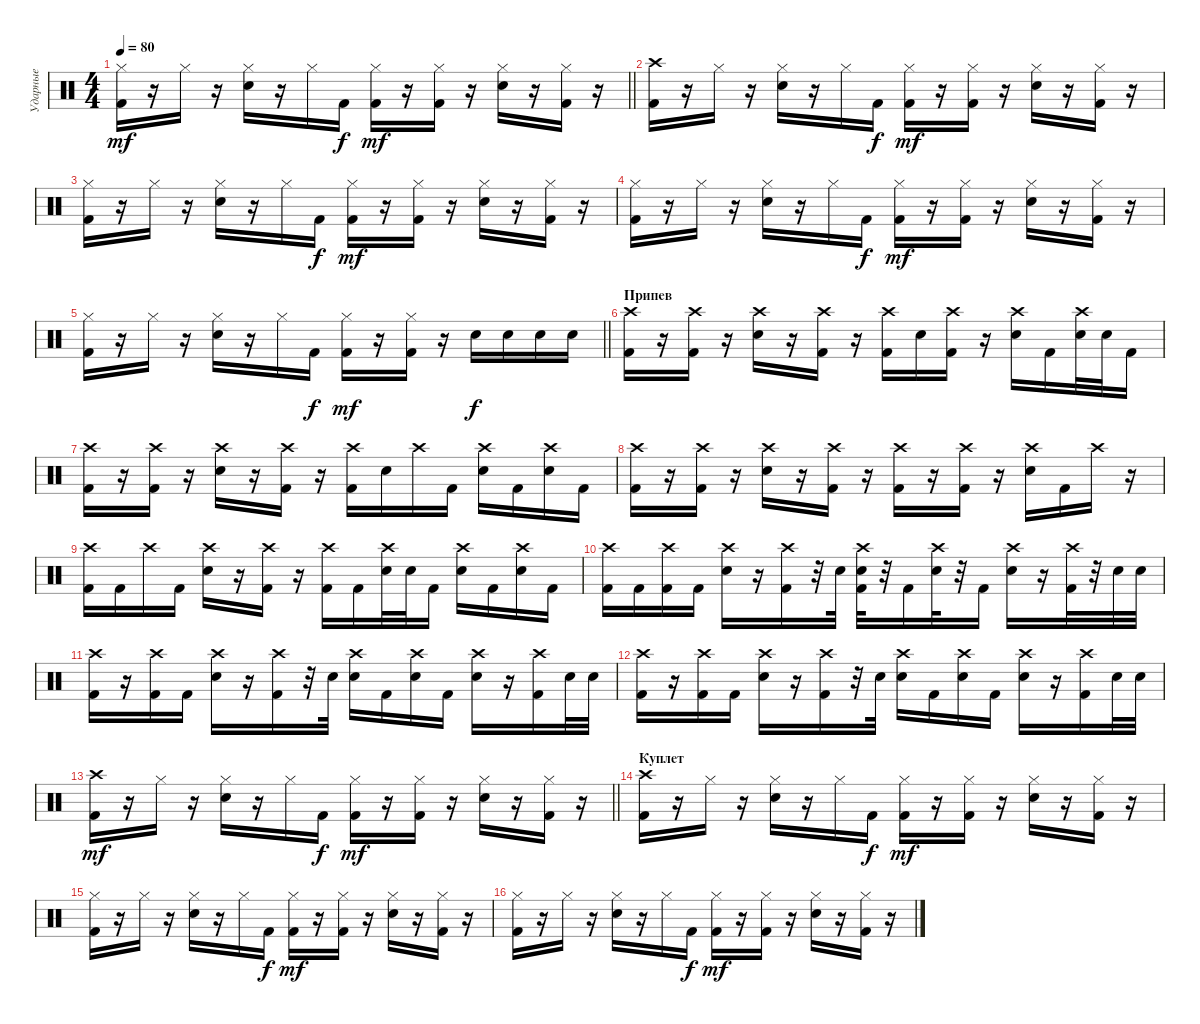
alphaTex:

\track ("Ударные" "Ударные") {instrument percussion}
\staff {score}
\articulation defaults
\ts (4 4)
\tempo 80
\clef neutral
\barLineRight lightlight
\ks c
("Hi-Hat (closed)" "Kick (hit) 2").16{dy mf} r.16 "Hi-Hat (closed)".16 r.16 ("Hi-Hat (closed)" "Electric Snare (hit)").16 r.16 "Hi-Hat (closed)".16 "Kick (hit) 2".16{dy f} ("Hi-Hat (closed)" "Kick (hit) 2").16{dy mf} r.16 ("Hi-Hat (closed)" "Kick (hit) 2").16 r.16 ("Hi-Hat (closed)" "Electric Snare (hit)").16 r.16 ("Hi-Hat (closed)" "Kick (hit) 2").16 r.16 |
("Crash high (hit)" "Kick (hit) 2").16 r.16 "Hi-Hat (closed)".16 r.16 ("Hi-Hat (closed)" "Electric Snare (hit)").16 r.16 "Hi-Hat (closed)".16 "Kick (hit) 2".16{dy f} ("Hi-Hat (closed)" "Kick (hit) 2").16{dy mf} r.16 ("Hi-Hat (closed)" "Kick (hit) 2").16 r.16 ("Hi-Hat (closed)" "Electric Snare (hit)").16 r.16 ("Hi-Hat (closed)" "Kick (hit) 2").16 r.16 |
("Hi-Hat (closed)" "Kick (hit) 2").16 r.16 "Hi-Hat (closed)".16 r.16 ("Hi-Hat (closed)" "Electric Snare (hit)").16 r.16 "Hi-Hat (closed)".16 "Kick (hit) 2".16{dy f} ("Hi-Hat (closed)" "Kick (hit) 2").16{dy mf} r.16 ("Hi-Hat (closed)" "Kick (hit) 2").16 r.16 ("Hi-Hat (closed)" "Electric Snare (hit)").16 r.16 ("Hi-Hat (closed)" "Kick (hit) 2").16 r.16 |
("Hi-Hat (closed)" "Kick (hit) 2").16 r.16 "Hi-Hat (closed)".16 r.16 ("Hi-Hat (closed)" "Electric Snare (hit)").16 r.16 "Hi-Hat (closed)".16 "Kick (hit) 2".16{dy f} ("Hi-Hat (closed)" "Kick (hit) 2").16{dy mf} r.16 ("Hi-Hat (closed)" "Kick (hit) 2").16 r.16 ("Hi-Hat (closed)" "Electric Snare (hit)").16 r.16 ("Hi-Hat (closed)" "Kick (hit) 2").16 r.16 |
\barLineRight lightlight
("Hi-Hat (closed)" "Kick (hit) 2").16 r.16 "Hi-Hat (closed)".16 r.16 ("Hi-Hat (closed)" "Electric Snare (hit)").16 r.16 "Hi-Hat (closed)".16 "Kick (hit) 2".16{dy f} ("Hi-Hat (closed)" "Kick (hit) 2").16{dy mf} r.16 ("Hi-Hat (closed)" "Kick (hit) 2").16 r.16 "Electric Snare (hit)".16{dy f} "Electric Snare (hit)".16 "Electric Snare (hit)".16 "Electric Snare (hit)".16 |
\section ("" "Припев")
("Crash high (hit)" "Kick (hit) 2").16 r.16 ("Crash high (hit)" "Kick (hit) 2").16 r.16 ("Crash high (hit)" "Electric Snare (hit)").16 r.16 ("Crash high (hit)" "Kick (hit) 2").16 r.16 ("Crash high (hit)" "Kick (hit) 2").16 "Electric Snare (hit)".16 ("Crash high (hit)" "Kick (hit) 2").16 r.16 ("Crash high (hit)" "Electric Snare (hit)").16 "Kick (hit) 2".16 ("Crash high (hit)" "Electric Snare (hit)").32 "Electric Snare (hit)".32 "Kick (hit) 2".16 |
("Crash high (hit)" "Kick (hit) 2").16 r.16 ("Crash high (hit)" "Kick (hit) 2").16 r.16 ("Crash high (hit)" "Electric Snare (hit)").16 r.16 ("Crash high (hit)" "Kick (hit) 2").16 r.16 ("Crash high (hit)" "Kick (hit) 2").16 "Electric Snare (hit)".16 "Crash high (hit)".16 "Kick (hit) 2".16 ("Crash high (hit)" "Electric Snare (hit)").16 "Kick (hit) 2".16 ("Crash high (hit)" "Electric Snare (hit)").16 "Kick (hit) 2".16 |
("Crash high (hit)" "Kick (hit) 2").16 r.16 ("Crash high (hit)" "Kick (hit) 2").16 r.16 ("Crash high (hit)" "Electric Snare (hit)").16 r.16 ("Crash high (hit)" "Kick (hit) 2").16 r.16 ("Crash high (hit)" "Kick (hit) 2").16 r.16 ("Crash high (hit)" "Kick (hit) 2").16 r.16 ("Crash high (hit)" "Electric Snare (hit)").16 "Kick (hit) 2".16 "Crash high (hit)".16 r.16 |
("Crash high (hit)" "Kick (hit) 2").16 "Kick (hit) 2".16 "Crash high (hit)".16 "Kick (hit) 2".16 ("Crash high (hit)" "Electric Snare (hit)").16 r.16 ("Crash high (hit)" "Kick (hit) 2").16 r.16 ("Crash high (hit)" "Kick (hit) 2").16 "Kick (hit) 2".16 ("Crash high (hit)" "Electric Snare (hit)").32 "Electric Snare (hit)".32 "Kick (hit) 2".16 ("Crash high (hit)" "Electric Snare (hit)").16 "Kick (hit) 2".16 ("Crash high (hit)" "Electric Snare (hit)").16 "Kick (hit) 2".16 |
("Crash high (hit)" "Kick (hit) 2").16 "Kick (hit) 2".16 ("Crash high (hit)" "Kick (hit) 2").16 "Kick (hit) 2".16 ("Crash high (hit)" "Electric Snare (hit)").16 r.16 ("Crash high (hit)" "Kick (hit) 2").16 r.32 "Electric Snare (hit)".32 ("Crash high (hit)" "Electric Snare (hit)" "Kick (hit) 2").32 r.32 "Kick (hit) 2".16 ("Crash high (hit)" "Electric Snare (hit)").32 r.32 "Kick (hit) 2".16 ("Crash high (hit)" "Electric Snare (hit)").16 r.16 ("Crash high (hit)" "Kick (hit) 2").32 r.32 "Electric Snare (hit)".32 "Electric Snare (hit)".32 |
("Crash high (hit)" "Kick (hit) 2").16 r.16 ("Crash high (hit)" "Kick (hit) 2").16 "Kick (hit) 2".16 ("Crash high (hit)" "Electric Snare (hit)").16 r.16 ("Crash high (hit)" "Kick (hit) 2").16 r.32 "Electric Snare (hit)".32 ("Crash high (hit)" "Electric Snare (hit)").16 "Kick (hit) 2".16 ("Crash high (hit)" "Electric Snare (hit)").16 "Kick (hit) 2".16 ("Crash high (hit)" "Electric Snare (hit)").16 r.16 ("Crash high (hit)" "Kick (hit) 2").16 "Electric Snare (hit)".32 "Electric Snare (hit)".32 |
("Crash high (hit)" "Kick (hit) 2").16 r.16 ("Crash high (hit)" "Kick (hit) 2").16 "Kick (hit) 2".16 ("Crash high (hit)" "Electric Snare (hit)").16 r.16 ("Crash high (hit)" "Kick (hit) 2").16 r.32 "Electric Snare (hit)".32 ("Crash high (hit)" "Electric Snare (hit)").16 "Kick (hit) 2".16 ("Crash high (hit)" "Electric Snare (hit)").16 "Kick (hit) 2".16 ("Crash high (hit)" "Electric Snare (hit)").16 r.16 ("Crash high (hit)" "Kick (hit) 2").16 "Electric Snare (hit)".32 "Electric Snare (hit)".32 |
\barLineRight lightlight
("Crash high (hit)" "Kick (hit) 2").16{dy mf} r.16 "Hi-Hat (closed)".16 r.16 ("Hi-Hat (closed)" "Electric Snare (hit)").16 r.16 "Hi-Hat (closed)".16 "Kick (hit) 2".16{dy f} ("Hi-Hat (closed)" "Kick (hit) 2").16{dy mf} r.16 ("Hi-Hat (closed)" "Kick (hit) 2").16 r.16 ("Hi-Hat (closed)" "Electric Snare (hit)").16 r.16 ("Hi-Hat (closed)" "Kick (hit) 2").16 r.16 |
\section ("" "Куплет")
("Crash high (hit)" "Kick (hit) 2").16 r.16 "Hi-Hat (closed)".16 r.16 ("Hi-Hat (closed)" "Electric Snare (hit)").16 r.16 "Hi-Hat (closed)".16 "Kick (hit) 2".16{dy f} ("Hi-Hat (closed)" "Kick (hit) 2").16{dy mf} r.16 ("Hi-Hat (closed)" "Kick (hit) 2").16 r.16 ("Hi-Hat (closed)" "Electric Snare (hit)").16 r.16 ("Hi-Hat (closed)" "Kick (hit) 2").16 r.16 |
("Hi-Hat (closed)" "Kick (hit) 2").16 r.16 "Hi-Hat (closed)".16 r.16 ("Hi-Hat (closed)" "Electric Snare (hit)").16 r.16 "Hi-Hat (closed)".16 "Kick (hit) 2".16{dy f} ("Hi-Hat (closed)" "Kick (hit) 2").16{dy mf} r.16 ("Hi-Hat (closed)" "Kick (hit) 2").16 r.16 ("Hi-Hat (closed)" "Electric Snare (hit)").16 r.16 ("Hi-Hat (closed)" "Kick (hit) 2").16 r.16 |
("Hi-Hat (closed)" "Kick (hit) 2").16 r.16 "Hi-Hat (closed)".16 r.16 ("Hi-Hat (closed)" "Electric Snare (hit)").16 r.16 "Hi-Hat (closed)".16 "Kick (hit) 2".16{dy f} ("Hi-Hat (closed)" "Kick (hit) 2").16{dy mf} r.16 ("Hi-Hat (closed)" "Kick (hit) 2").16 r.16 ("Hi-Hat (closed)" "Electric Snare (hit)").16 r.16 ("Hi-Hat (closed)" "Kick (hit) 2").16 r.16
